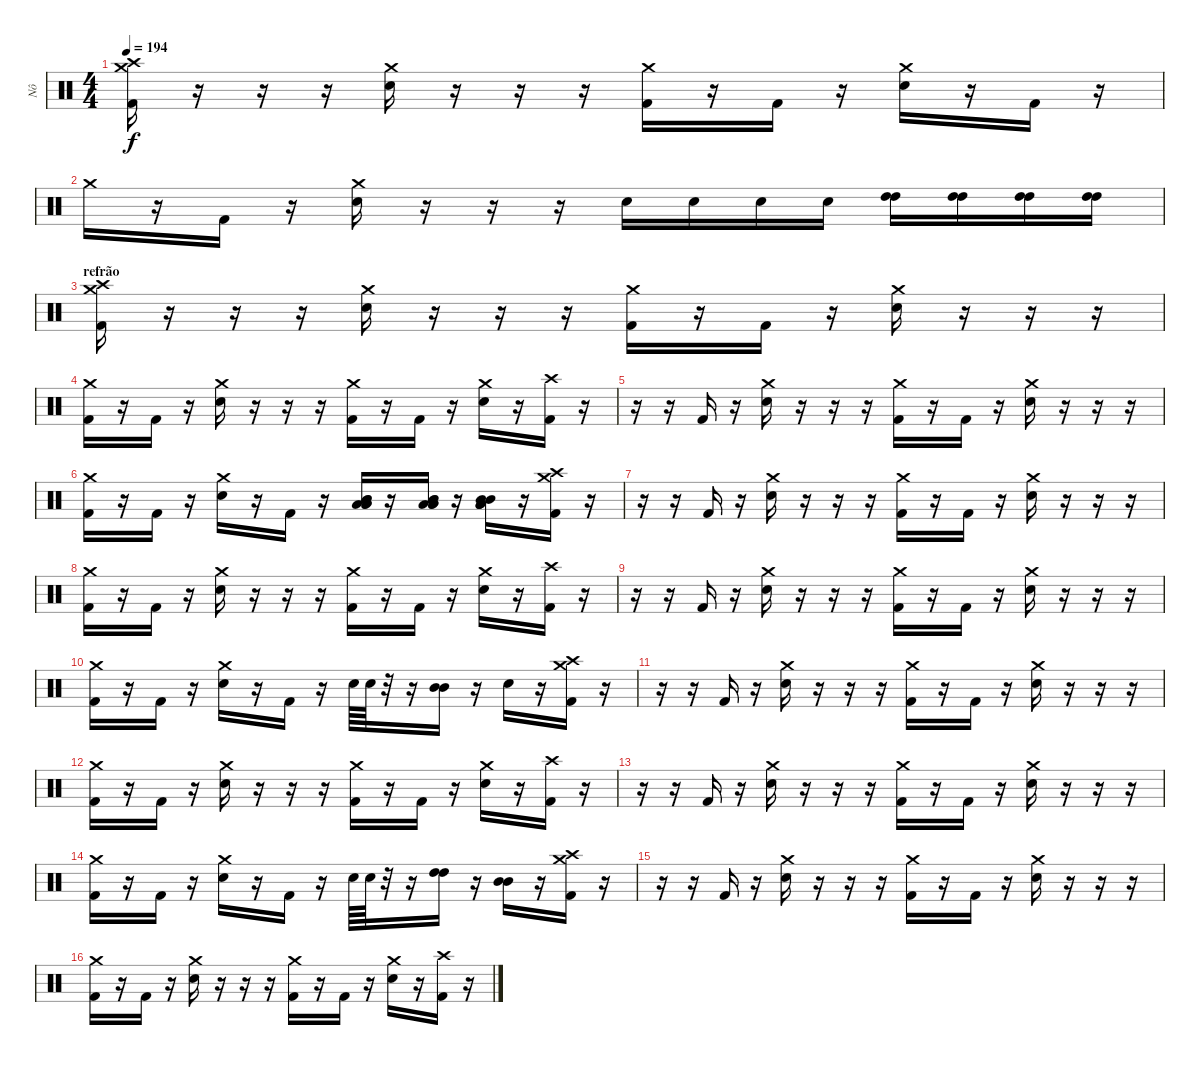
\track ("Nô" "Nô") {instrument percussion}
\staff {score}
\articulation defaults
\ts (4 4)
\tempo 194
\clef neutral
\ks c
("Crash medium (hit)" "Crash high (hit)" "Kick (hit) 2").16{dy f} r.16 r.16 r.16 ("Crash medium (hit)" "Electric Snare (hit)").16 r.16 r.16 r.16 ("Crash medium (hit)" "Kick (hit) 2").16 r.16 "Kick (hit) 2".16 r.16 ("Crash medium (hit)" "Electric Snare (hit)").16 r.16 "Kick (hit) 2".16 r.16 |
"Crash medium (hit)".16 r.16 "Kick (hit) 2".16 r.16 ("Crash medium (hit)" "Electric Snare (hit)").16 r.16 r.16 r.16 "Electric Snare (hit)".16 "Electric Snare (hit)".16 "Electric Snare (hit)".16 "Electric Snare (hit)".16 ("High Tom (hit)" "High Tom (hit)").16 ("High Tom (hit)" "High Tom (hit)").16 ("High Tom (hit)" "High Tom (hit)").16 ("High Tom (hit)" "High Tom (hit)").16 |
\section ("" "refrão")
("Crash medium (hit)" "Crash high (hit)" "Kick (hit) 2").16 r.16 r.16 r.16 ("Crash medium (hit)" "Electric Snare (hit)").16 r.16 r.16 r.16 ("Crash medium (hit)" "Kick (hit) 2").16 r.16 "Kick (hit) 2".16 r.16 ("Crash medium (hit)" "Electric Snare (hit)").16 r.16 r.16 r.16 |
("Crash medium (hit)" "Kick (hit) 2").16 r.16 "Kick (hit) 2".16 r.16 ("Crash medium (hit)" "Electric Snare (hit)").16 r.16 r.16 r.16 ("Crash medium (hit)" "Kick (hit) 2").16 r.16 "Kick (hit) 2".16 r.16 ("Crash medium (hit)" "Electric Snare (hit)").16 r.16 ("Crash high (hit)" "Kick (hit) 2").16 r.16 |
r.16 r.16 "Kick (hit) 2".16 r.16 ("Crash medium (hit)" "Electric Snare (hit)").16 r.16 r.16 r.16 ("Crash medium (hit)" "Kick (hit) 2").16 r.16 "Kick (hit) 2".16 r.16 ("Crash medium (hit)" "Electric Snare (hit)").16 r.16 r.16 r.16 |
("Crash medium (hit)" "Kick (hit) 2").16 r.16 "Kick (hit) 2".16 r.16 ("Crash medium (hit)" "Electric Snare (hit)").16 r.16 "Kick (hit) 2".16 r.16 ("Mid Tom (hit)" "Mid Tom (hit)" "Low Tom (hit)" "Low Tom (hit)" "Low Tom (hit)").16 r.16 ("Mid Tom (hit)" "Mid Tom (hit)" "Low Tom (hit)" "Low Tom (hit)" "Low Tom (hit)").16 r.16 ("Mid Tom (hit)" "Mid Tom (hit)" "Low Tom (hit)" "Low Tom (hit)" "Low Tom (hit)").16 r.16 ("Crash high (hit)" "Crash medium (hit)" "Kick (hit) 2").16 r.16 |
r.16 r.16 "Kick (hit) 2".16 r.16 ("Crash medium (hit)" "Electric Snare (hit)").16 r.16 r.16 r.16 ("Crash medium (hit)" "Kick (hit) 2").16 r.16 "Kick (hit) 2".16 r.16 ("Crash medium (hit)" "Electric Snare (hit)").16 r.16 r.16 r.16 |
("Crash medium (hit)" "Kick (hit) 2").16 r.16 "Kick (hit) 2".16 r.16 ("Crash medium (hit)" "Electric Snare (hit)").16 r.16 r.16 r.16 ("Crash medium (hit)" "Kick (hit) 2").16 r.16 "Kick (hit) 2".16 r.16 ("Crash medium (hit)" "Electric Snare (hit)").16 r.16 ("Crash high (hit)" "Kick (hit) 2").16 r.16 |
r.16 r.16 "Kick (hit) 2".16 r.16 ("Crash medium (hit)" "Electric Snare (hit)").16 r.16 r.16 r.16 ("Crash medium (hit)" "Kick (hit) 2").16 r.16 "Kick (hit) 2".16 r.16 ("Crash medium (hit)" "Electric Snare (hit)").16 r.16 r.16 r.16 |
("Crash medium (hit)" "Kick (hit) 2").16 r.16 "Kick (hit) 2".16 r.16 ("Crash medium (hit)" "Electric Snare (hit)").16 r.16 "Kick (hit) 2".16 r.16 "Electric Snare (hit)".64 "Electric Snare (hit)".64 r.32 r.16 ("Mid Tom (hit)" "Mid Tom (hit)").16 r.16 "Electric Snare (hit)".16 r.16 ("Crash high (hit)" "Crash medium (hit)" "Kick (hit) 2").16 r.16 |
r.16 r.16 "Kick (hit) 2".16 r.16 ("Crash medium (hit)" "Electric Snare (hit)").16 r.16 r.16 r.16 ("Crash medium (hit)" "Kick (hit) 2").16 r.16 "Kick (hit) 2".16 r.16 ("Crash medium (hit)" "Electric Snare (hit)").16 r.16 r.16 r.16 |
("Crash medium (hit)" "Kick (hit) 2").16 r.16 "Kick (hit) 2".16 r.16 ("Crash medium (hit)" "Electric Snare (hit)").16 r.16 r.16 r.16 ("Crash medium (hit)" "Kick (hit) 2").16 r.16 "Kick (hit) 2".16 r.16 ("Crash medium (hit)" "Electric Snare (hit)").16 r.16 ("Crash high (hit)" "Kick (hit) 2").16 r.16 |
r.16 r.16 "Kick (hit) 2".16 r.16 ("Crash medium (hit)" "Electric Snare (hit)").16 r.16 r.16 r.16 ("Crash medium (hit)" "Kick (hit) 2").16 r.16 "Kick (hit) 2".16 r.16 ("Crash medium (hit)" "Electric Snare (hit)").16 r.16 r.16 r.16 |
("Crash medium (hit)" "Kick (hit) 2").16 r.16 "Kick (hit) 2".16 r.16 ("Crash medium (hit)" "Electric Snare (hit)").16 r.16 "Kick (hit) 2".16 r.16 "Electric Snare (hit)".64 "Electric Snare (hit)".64 r.32 r.16 ("High Tom (hit)" "High Tom (hit)").16 r.16 ("Mid Tom (hit)" "Mid Tom (hit)").16 r.16 ("Crash high (hit)" "Crash medium (hit)" "Kick (hit) 2").16 r.16 |
r.16 r.16 "Kick (hit) 2".16 r.16 ("Crash medium (hit)" "Electric Snare (hit)").16 r.16 r.16 r.16 ("Crash medium (hit)" "Kick (hit) 2").16 r.16 "Kick (hit) 2".16 r.16 ("Crash medium (hit)" "Electric Snare (hit)").16 r.16 r.16 r.16 |
("Crash medium (hit)" "Kick (hit) 2").16 r.16 "Kick (hit) 2".16 r.16 ("Crash medium (hit)" "Electric Snare (hit)").16 r.16 r.16 r.16 ("Crash medium (hit)" "Kick (hit) 2").16 r.16 "Kick (hit) 2".16 r.16 ("Crash medium (hit)" "Electric Snare (hit)").16 r.16 ("Crash high (hit)" "Kick (hit) 2").16 r.16
